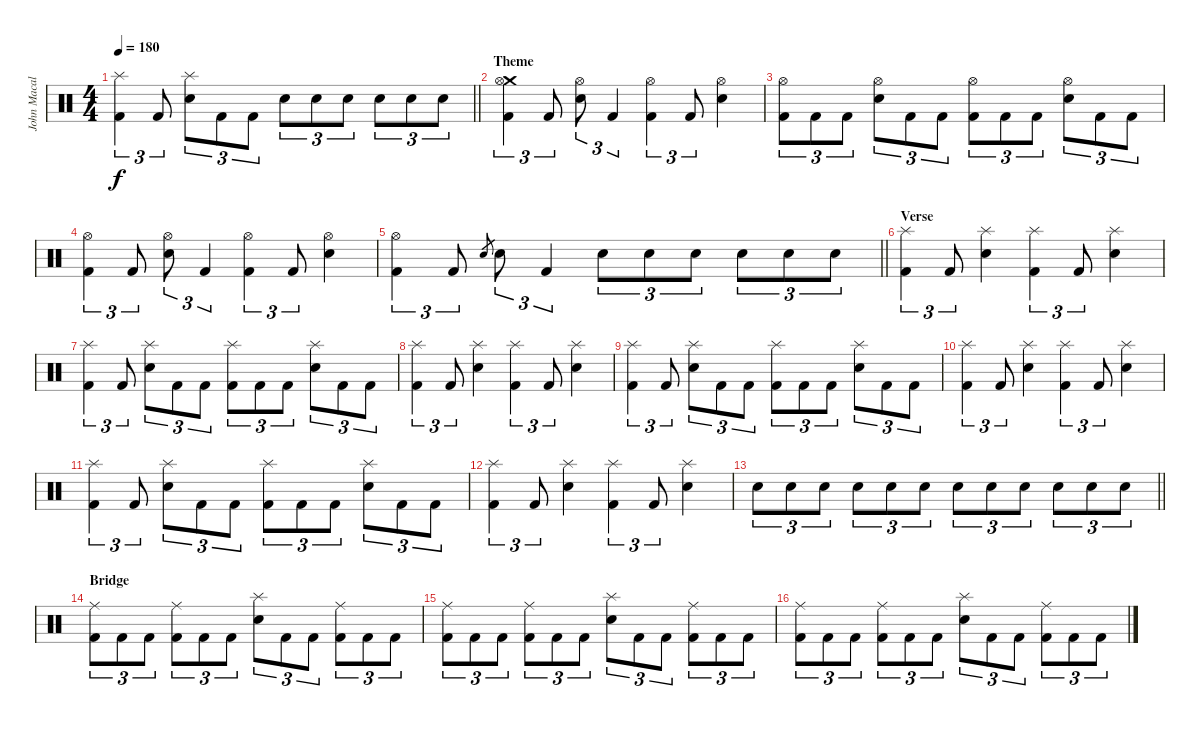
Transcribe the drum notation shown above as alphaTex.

\track ("John Macaluso" "John Macal") {instrument percussion}
\staff {score}
\articulation defaults
\ts (4 4)
\tempo 180
\clef neutral
\barLineRight lightlight
\ks c
("Splash (hit)" "Kick (hit) 2").4{tu (3 2) dy f} "Kick (hit) 2".8{tu (3 2)} ("Splash (hit)" "Snare (hit) 2").8{tu (3 2)} "Kick (hit) 2".8{tu (3 2)} "Kick (hit) 2".8{tu (3 2)} "Snare (hit) 2".8{tu (3 2)} "Snare (hit) 2".8{tu (3 2)} "Snare (hit) 2".8{tu (3 2)} "Snare (hit) 2".8{tu (3 2)} "Snare (hit) 2".8{tu (3 2)} "Snare (hit) 2".8{tu (3 2)} |
\section ("" "Theme")
("Crash medium (hit)" "Hi-Hat (open)" "Kick (hit) 2").4{tu (3 2)} "Kick (hit) 2".8{tu (3 2)} ("Hi-Hat (open)" "Snare (hit) 2").8{tu (3 2)} "Kick (hit) 2".4{tu (3 2)} ("Hi-Hat (open)" "Kick (hit) 2").4{tu (3 2)} "Kick (hit) 2".8{tu (3 2)} ("Hi-Hat (open)" "Snare (hit) 2").4 |
("Hi-Hat (open)" "Kick (hit) 2").8{tu (3 2)} "Kick (hit) 2".8{tu (3 2)} "Kick (hit) 2".8{tu (3 2)} ("Hi-Hat (open)" "Snare (hit) 2").8{tu (3 2)} "Kick (hit) 2".8{tu (3 2)} "Kick (hit) 2".8{tu (3 2)} ("Hi-Hat (open)" "Kick (hit) 2").8{tu (3 2)} "Kick (hit) 2".8{tu (3 2)} "Kick (hit) 2".8{tu (3 2)} ("Hi-Hat (open)" "Snare (hit) 2").8{tu (3 2)} "Kick (hit) 2".8{tu (3 2)} "Kick (hit) 2".8{tu (3 2)} |
("Hi-Hat (open)" "Kick (hit) 2").4{tu (3 2)} "Kick (hit) 2".8{tu (3 2)} ("Hi-Hat (open)" "Snare (hit) 2").8{tu (3 2)} "Kick (hit) 2".4{tu (3 2)} ("Hi-Hat (open)" "Kick (hit) 2").4{tu (3 2)} "Kick (hit) 2".8{tu (3 2)} ("Hi-Hat (open)" "Snare (hit) 2").4 |
\barLineRight lightlight
("Hi-Hat (open)" "Kick (hit) 2").4{tu (3 2)} "Kick (hit) 2".8{tu (3 2)} "Snare (hit) 2".8{gr} "Snare (hit) 2".8{tu (3 2)} "Kick (hit) 2".4{tu (3 2)} "Snare (hit) 2".8{tu (3 2)} "Snare (hit) 2".8{tu (3 2)} "Snare (hit) 2".8{tu (3 2)} "Snare (hit) 2".8{tu (3 2)} "Snare (hit) 2".8{tu (3 2)} "Snare (hit) 2".8{tu (3 2)} |
\section ("" "Verse")
("Splash (hit)" "Kick (hit) 2").4{tu (3 2)} "Kick (hit) 2".8{tu (3 2)} ("Splash (hit)" "Snare (hit) 2").4 ("Splash (hit)" "Kick (hit) 2").4{tu (3 2)} "Kick (hit) 2".8{tu (3 2)} ("Splash (hit)" "Snare (hit) 2").4 |
("Splash (hit)" "Kick (hit) 2").4{tu (3 2)} "Kick (hit) 2".8{tu (3 2)} ("Splash (hit)" "Snare (hit) 2").8{tu (3 2)} "Kick (hit) 2".8{tu (3 2)} "Kick (hit) 2".8{tu (3 2)} ("Splash (hit)" "Kick (hit) 2").8{tu (3 2)} "Kick (hit) 2".8{tu (3 2)} "Kick (hit) 2".8{tu (3 2)} ("Splash (hit)" "Snare (hit) 2").8{tu (3 2)} "Kick (hit) 2".8{tu (3 2)} "Kick (hit) 2".8{tu (3 2)} |
("Splash (hit)" "Kick (hit) 2").4{tu (3 2)} "Kick (hit) 2".8{tu (3 2)} ("Splash (hit)" "Snare (hit) 2").4 ("Splash (hit)" "Kick (hit) 2").4{tu (3 2)} "Kick (hit) 2".8{tu (3 2)} ("Splash (hit)" "Snare (hit) 2").4 |
("Splash (hit)" "Kick (hit) 2").4{tu (3 2)} "Kick (hit) 2".8{tu (3 2)} ("Splash (hit)" "Snare (hit) 2").8{tu (3 2)} "Kick (hit) 2".8{tu (3 2)} "Kick (hit) 2".8{tu (3 2)} ("Splash (hit)" "Kick (hit) 2").8{tu (3 2)} "Kick (hit) 2".8{tu (3 2)} "Kick (hit) 2".8{tu (3 2)} ("Splash (hit)" "Snare (hit) 2").8{tu (3 2)} "Kick (hit) 2".8{tu (3 2)} "Kick (hit) 2".8{tu (3 2)} |
("Splash (hit)" "Kick (hit) 2").4{tu (3 2)} "Kick (hit) 2".8{tu (3 2)} ("Splash (hit)" "Snare (hit) 2").4 ("Splash (hit)" "Kick (hit) 2").4{tu (3 2)} "Kick (hit) 2".8{tu (3 2)} ("Splash (hit)" "Snare (hit) 2").4 |
("Splash (hit)" "Kick (hit) 2").4{tu (3 2)} "Kick (hit) 2".8{tu (3 2)} ("Splash (hit)" "Snare (hit) 2").8{tu (3 2)} "Kick (hit) 2".8{tu (3 2)} "Kick (hit) 2".8{tu (3 2)} ("Splash (hit)" "Kick (hit) 2").8{tu (3 2)} "Kick (hit) 2".8{tu (3 2)} "Kick (hit) 2".8{tu (3 2)} ("Splash (hit)" "Snare (hit) 2").8{tu (3 2)} "Kick (hit) 2".8{tu (3 2)} "Kick (hit) 2".8{tu (3 2)} |
("Splash (hit)" "Kick (hit) 2").4{tu (3 2)} "Kick (hit) 2".8{tu (3 2)} ("Splash (hit)" "Snare (hit) 2").4 ("Splash (hit)" "Kick (hit) 2").4{tu (3 2)} "Kick (hit) 2".8{tu (3 2)} ("Splash (hit)" "Snare (hit) 2").4 |
\barLineRight lightlight "Snare (hit) 2".8{tu (3 2)} "Snare (hit) 2".8{tu (3 2)} "Snare (hit) 2".8{tu (3 2)} "Snare (hit) 2".8{tu (3 2)} "Snare (hit) 2".8{tu (3 2)} "Snare (hit) 2".8{tu (3 2)} "Snare (hit) 2".8{tu (3 2)} "Snare (hit) 2".8{tu (3 2)} "Snare (hit) 2".8{tu (3 2)} "Snare (hit) 2".8{tu (3 2)} "Snare (hit) 2".8{tu (3 2)} "Snare (hit) 2".8{tu (3 2)}
|
\section ("" "Bridge")
("Ride (middle)" "Kick (hit) 2").8{tu (3 2)} "Kick (hit) 2".8{tu (3 2)} "Kick (hit) 2".8{tu (3 2)} ("Ride (middle)" "Kick (hit) 2").8{tu (3 2)} "Kick (hit) 2".8{tu (3 2)} "Kick (hit) 2".8{tu (3 2)} ("Splash (hit)" "Snare (hit) 2").8{tu (3 2)} "Kick (hit) 2".8{tu (3 2)} "Kick (hit) 2".8{tu (3 2)} ("Ride (middle)" "Kick (hit) 2").8{tu (3 2)} "Kick (hit) 2".8{tu (3 2)} "Kick (hit) 2".8{tu (3 2)} |
("Ride (middle)" "Kick (hit) 2").8{tu (3 2)} "Kick (hit) 2".8{tu (3 2)} "Kick (hit) 2".8{tu (3 2)} ("Ride (middle)" "Kick (hit) 2").8{tu (3 2)} "Kick (hit) 2".8{tu (3 2)} "Kick (hit) 2".8{tu (3 2)} ("Splash (hit)" "Snare (hit) 2").8{tu (3 2)} "Kick (hit) 2".8{tu (3 2)} "Kick (hit) 2".8{tu (3 2)} ("Ride (middle)" "Kick (hit) 2").8{tu (3 2)} "Kick (hit) 2".8{tu (3 2)} "Kick (hit) 2".8{tu (3 2)} |
("Ride (middle)" "Kick (hit) 2").8{tu (3 2)} "Kick (hit) 2".8{tu (3 2)} "Kick (hit) 2".8{tu (3 2)} ("Ride (middle)" "Kick (hit) 2").8{tu (3 2)} "Kick (hit) 2".8{tu (3 2)} "Kick (hit) 2".8{tu (3 2)} ("Splash (hit)" "Snare (hit) 2").8{tu (3 2)} "Kick (hit) 2".8{tu (3 2)} "Kick (hit) 2".8{tu (3 2)} ("Ride (middle)" "Kick (hit) 2").8{tu (3 2)} "Kick (hit) 2".8{tu (3 2)} "Kick (hit) 2".8{tu (3 2)}
